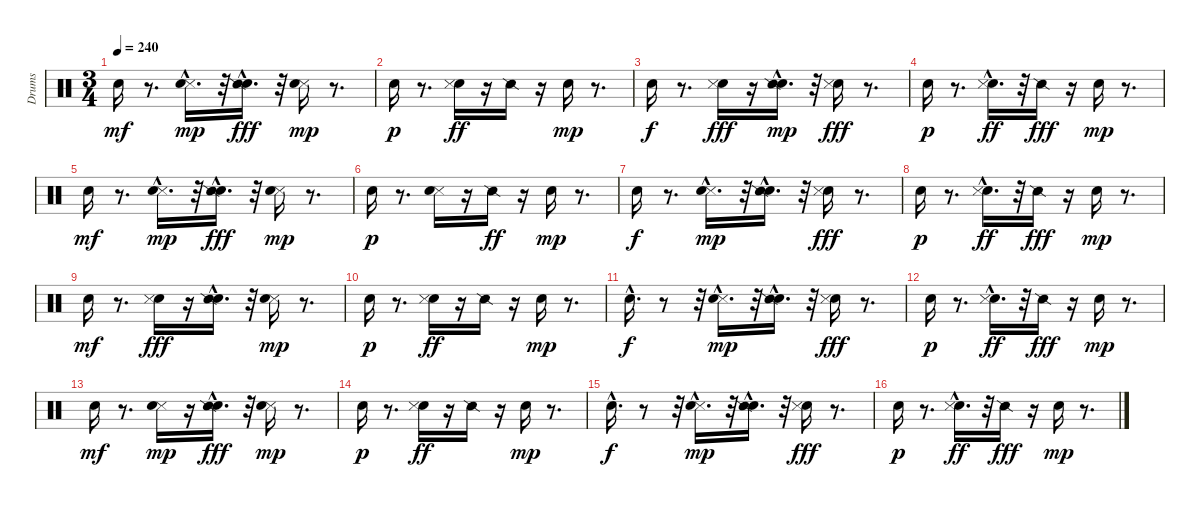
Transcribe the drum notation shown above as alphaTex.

\track ("Drums" "Drums") {instrument percussion}
\staff {score}
\articulation defaults
\ts (3 4)
\tempo 240
\clef neutral
\ks c "Electric Snare (hit)".16{dy mf}
r.8{d} ("Snare (side stick) 3"{hac} "Electric Snare (hit)").16{d dy mp} r.32 ("Electric Snare (hit)" "Snare (side stick) 2"{hac}).16{d dy fff} r.32 ("Snare (side stick) 3" "Electric Snare (hit)").16{dy mp} r.8{d} |
"Electric Snare (hit)".16{dy p} r.8{d} ("Electric Snare (hit)" "Snare (side stick) 3").16{dy ff} r.16 "Snare (side stick) 2".16 r.16 "Electric Snare (hit)".16{dy mp} r.8{d} |
"Electric Snare (hit)".16{dy f} r.8{d} ("Electric Snare (hit)" "Snare (side stick) 3").16{dy fff} r.16 ("Electric Snare (hit)" "Snare (side stick) 2"{hac}).16{d dy mp} r.32 ("Electric Snare (hit)" "Snare (side stick) 3").16{dy fff} r.8{d} |
"Electric Snare (hit)".16{dy p} r.8{d} ("Electric Snare (hit)" "Snare (side stick) 3"{hac}).16{d dy ff} r.32 "Snare (side stick) 2".16{dy fff} r.16 "Electric Snare (hit)".16{dy mp} r.8{d} |
"Electric Snare (hit)".16{dy mf} r.8{d} ("Snare (side stick) 3"{hac} "Electric Snare (hit)").16{d dy mp} r.32 ("Electric Snare (hit)" "Snare (side stick) 2"{hac}).16{d dy fff} r.32 ("Snare (side stick) 3" "Electric Snare (hit)").16{dy mp} r.8{d} |
"Electric Snare (hit)".16{dy p} r.8{d} ("Snare (side stick) 3" "Electric Snare (hit)").16 r.16 "Snare (side stick) 2".16{dy ff} r.16 "Electric Snare (hit)".16{dy mp} r.8{d} |
"Electric Snare (hit)".16{dy f} r.8{d} ("Snare (side stick) 3"{hac} "Electric Snare (hit)").16{d dy mp} r.32 ("Electric Snare (hit)" "Snare (side stick) 2"{hac}).16{d} r.32 ("Electric Snare (hit)" "Snare (side stick) 3").16{dy fff} r.8{d} |
"Electric Snare (hit)".16{dy p} r.8{d} ("Electric Snare (hit)" "Snare (side stick) 3"{hac}).16{d dy ff} r.32 "Snare (side stick) 2".16{dy fff} r.16 "Electric Snare (hit)".16{dy mp} r.8{d} |
"Electric Snare (hit)".16{dy mf} r.8{d} ("Electric Snare (hit)" "Snare (side stick) 3").16{dy fff} r.16 ("Electric Snare (hit)" "Snare (side stick) 2"{hac}).16{d} r.32 ("Snare (side stick) 3" "Electric Snare (hit)").16{dy mp} r.8{d} |
"Electric Snare (hit)".16{dy p} r.8{d} ("Electric Snare (hit)" "Snare (side stick) 3").16{dy ff} r.16 "Snare (side stick) 2".16 r.16 "Electric Snare (hit)".16{dy mp} r.8{d} |
"Electric Snare (hit)"{hac}.16{d dy f} r.8 r.32 ("Snare (side stick) 3"{hac} "Electric Snare (hit)").16{d dy mp} r.32 ("Electric Snare (hit)" "Snare (side stick) 2"{hac}).16{d} r.32 ("Electric Snare (hit)" "Snare (side stick) 3").16{dy fff} r.8{d} |
"Electric Snare (hit)".16{dy p} r.8{d} ("Electric Snare (hit)" "Snare (side stick) 3"{hac}).16{d dy ff} r.32 "Snare (side stick) 2".16{dy fff} r.16 "Electric Snare (hit)".16{dy mp} r.8{d} |
"Electric Snare (hit)".16{dy mf} r.8{d} ("Snare (side stick) 3" "Electric Snare (hit)").16{dy mp} r.16 ("Electric Snare (hit)" "Snare (side stick) 2"{hac}).16{d dy fff} r.32 ("Snare (side stick) 3" "Electric Snare (hit)").16{dy mp} r.8{d} |
"Electric Snare (hit)".16{dy p} r.8{d} ("Electric Snare (hit)" "Snare (side stick) 3").16{dy ff} r.16 "Snare (side stick) 2".16 r.16 "Electric Snare (hit)".16{dy mp} r.8{d} |
"Electric Snare (hit)"{hac}.16{d dy f} r.8 r.32 ("Snare (side stick) 3"{hac} "Electric Snare (hit)").16{d dy mp} r.32 ("Electric Snare (hit)" "Snare (side stick) 2"{hac}).16{d} r.32 ("Electric Snare (hit)" "Snare (side stick) 3").16{dy fff} r.8{d} |
"Electric Snare (hit)".16{dy p} r.8{d} ("Electric Snare (hit)" "Snare (side stick) 3"{hac}).16{d dy ff} r.32 "Snare (side stick) 2".16{dy fff} r.16 "Electric Snare (hit)".16{dy mp} r.8{d}
